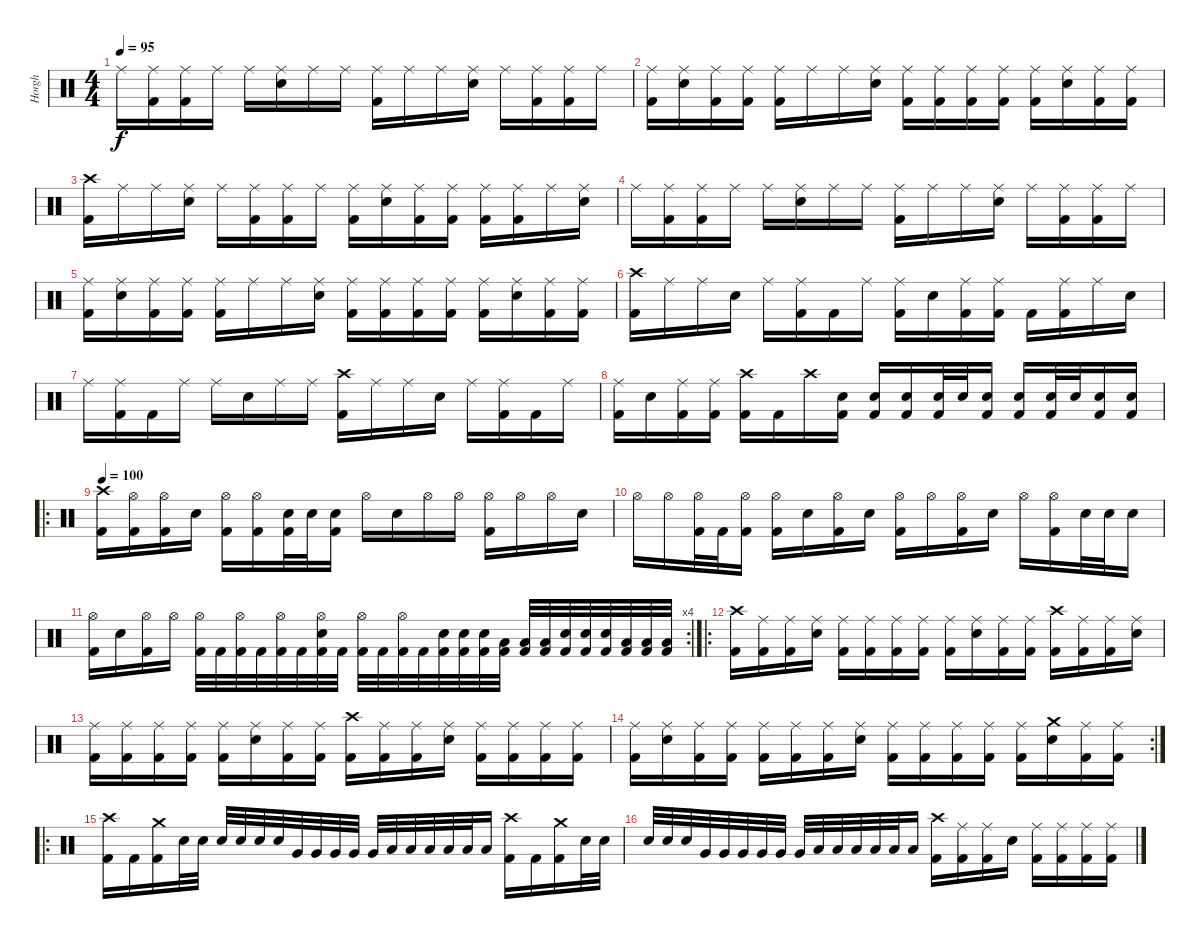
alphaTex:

\track ("Horgh" "Horgh") {instrument percussion}
\staff {score}
\articulation defaults
\ts (4 4)
\tempo 95
\clef neutral
\ks c "Ride (middle)".16{dy f}
("Ride (middle)" "Kick (hit) 2").16 ("Ride (middle)" "Kick (hit) 2").16 "Ride (middle)".16 "Ride (middle)".16 ("Ride (middle)" "Snare (hit) 2").16 "Ride (middle)".16 "Ride (middle)".16 ("Ride (middle)" "Kick (hit) 2").16 "Ride (middle)".16 "Ride (middle)".16 ("Ride (middle)" "Snare (hit) 2").16 "Ride (middle)".16 ("Ride (middle)" "Kick (hit) 2").16 ("Ride (middle)" "Kick (hit) 2").16 "Ride (middle)".16 |
("Ride (middle)" "Kick (hit) 2").16 ("Ride (middle)" "Snare (hit) 2").16 ("Ride (middle)" "Kick (hit) 2").16 ("Ride (middle)" "Kick (hit) 2").16 ("Ride (middle)" "Kick (hit) 2").16 "Ride (middle)".16 "Ride (middle)".16 ("Ride (middle)" "Snare (hit) 2").16 ("Ride (middle)" "Kick (hit) 2").16 ("Ride (middle)" "Kick (hit) 2").16 ("Ride (middle)" "Kick (hit) 2").16 ("Ride (middle)" "Kick (hit) 2").16 ("Ride (middle)" "Kick (hit) 2").16 ("Ride (middle)" "Snare (hit) 2").16 ("Ride (middle)" "Kick (hit) 2").16 ("Ride (middle)" "Kick (hit) 2").16 |
("Crash high (hit)" "Kick (hit) 2").16 "Ride (middle)".16 "Ride (middle)".16 ("Ride (middle)" "Snare (hit) 2").16 "Ride (middle)".16 ("Ride (middle)" "Kick (hit) 2").16 ("Ride (middle)" "Kick (hit) 2").16 "Ride (middle)".16 ("Ride (middle)" "Kick (hit) 2").16 ("Ride (middle)" "Snare (hit) 2").16 ("Ride (middle)" "Kick (hit) 2").16 ("Ride (middle)" "Kick (hit) 2").16 ("Ride (middle)" "Kick (hit) 2").16 ("Ride (middle)" "Kick (hit) 2").16 "Ride (middle)".16 ("Ride (middle)" "Snare (hit) 2").16 |
"Ride (middle)".16 ("Ride (middle)" "Kick (hit) 2").16 ("Ride (middle)" "Kick (hit) 2").16 "Ride (middle)".16 "Ride (middle)".16 ("Ride (middle)" "Snare (hit) 2").16 "Ride (middle)".16 "Ride (middle)".16 ("Ride (middle)" "Kick (hit) 2").16 "Ride (middle)".16 "Ride (middle)".16 ("Ride (middle)" "Snare (hit) 2").16 "Ride (middle)".16 ("Ride (middle)" "Kick (hit) 2").16 ("Ride (middle)" "Kick (hit) 2").16 "Ride (middle)".16 |
("Ride (middle)" "Kick (hit) 2").16 ("Ride (middle)" "Snare (hit) 2").16 ("Ride (middle)" "Kick (hit) 2").16 ("Ride (middle)" "Kick (hit) 2").16 ("Ride (middle)" "Kick (hit) 2").16 "Ride (middle)".16 "Ride (middle)".16 ("Ride (middle)" "Snare (hit) 2").16 ("Ride (middle)" "Kick (hit) 2").16 ("Ride (middle)" "Kick (hit) 2").16 ("Ride (middle)" "Kick (hit) 2").16 ("Ride (middle)" "Kick (hit) 2").16 ("Ride (middle)" "Kick (hit) 2").16 ("Ride (middle)" "Snare (hit) 2").16 ("Ride (middle)" "Kick (hit) 2").16 ("Ride (middle)" "Kick (hit) 2").16 |
("Crash high (hit)" "Kick (hit) 2").16 "Ride (middle)".16 "Ride (middle)".16 "Snare (hit) 2".16 "Ride (middle)".16 ("Ride (middle)" "Kick (hit) 2").16 "Kick (hit) 2".16 "Ride (middle)".16 ("Ride (middle)" "Kick (hit) 2").16 "Snare (hit) 2".16 ("Ride (middle)" "Kick (hit) 2").16 ("Ride (middle)" "Kick (hit) 2").16 "Kick (hit) 2".16 ("Ride (middle)" "Kick (hit) 2").16 "Ride (middle)".16 "Snare (hit) 2".16 |
"Ride (middle)".16 ("Ride (middle)" "Kick (hit) 2").16 "Kick (hit) 2".16 "Ride (middle)".16 "Ride (middle)".16 "Snare (hit) 2".16 "Ride (middle)".16 "Ride (middle)".16 ("Crash high (hit)" "Kick (hit) 2").16 "Ride (middle)".16 "Ride (middle)".16 "Snare (hit) 2".16 "Ride (middle)".16 ("Ride (middle)" "Kick (hit) 2").16 "Kick (hit) 2".16 "Ride (middle)".16 |
("Ride (middle)" "Kick (hit) 2").16 "Snare (hit) 2".16 ("Ride (middle)" "Kick (hit) 2").16 ("Ride (middle)" "Kick (hit) 2").16 ("Crash high (hit)" "Kick (hit) 2").16 "Kick (hit) 2".16 "Crash high (hit)".16 ("Snare (hit) 2" "Kick (hit) 2").16 ("Snare (hit) 2" "Kick (hit) 2").16 ("Snare (hit) 2" "Kick (hit) 2").16 ("Snare (hit) 2" "Kick (hit) 2").32 "Snare (hit) 2".32 ("Snare (hit) 2" "Kick (hit) 2").16 ("Snare (hit) 2" "Kick (hit) 2").16 ("Snare (hit) 2" "Kick (hit) 2").32 "Snare (hit) 2".32 ("Snare (hit) 2" "Kick (hit) 2").16 ("Snare (hit) 2" "Kick (hit) 2").16 |
\ro
\tempo 100
("Crash high (hit)" "Kick (hit) 2").16 ("Hi-Hat (open)" "Kick (hit) 2").16 ("Hi-Hat (open)" "Kick (hit) 2").16 "Snare (hit) 2".16 ("Hi-Hat (open)" "Kick (hit) 2").16 ("Hi-Hat (open)" "Kick (hit) 2").16 ("Snare (hit) 2" "Kick (hit) 2").32 "Snare (hit) 2".32 ("Snare (hit) 2" "Kick (hit) 2").16 "Hi-Hat (open)".16 "Snare (hit) 2".16 "Hi-Hat (open)".16 "Hi-Hat (open)".16 ("Hi-Hat (open)" "Kick (hit) 2").16 "Hi-Hat (open)".16 "Hi-Hat (open)".16 "Snare (hit) 2".16 |
"Hi-Hat (open)".16 "Hi-Hat (open)".16 ("Hi-Hat (open)" "Kick (hit) 2").32 "Kick (hit) 2".32 ("Hi-Hat (open)" "Kick (hit) 2").16 ("Hi-Hat (open)" "Kick (hit) 2").16 "Snare (hit) 2".16 ("Hi-Hat (open)" "Kick (hit) 2").16 "Snare (hit) 2".16 ("Hi-Hat (open)" "Kick (hit) 2").16 "Hi-Hat (open)".16 ("Hi-Hat (open)" "Kick (hit) 2").16 "Snare (hit) 2".16 "Hi-Hat (open)".16 ("Hi-Hat (open)" "Kick (hit) 2").16 "Snare (hit) 2".32 "Snare (hit) 2".32 "Snare (hit) 2".16 |
\rc 4
("Hi-Hat (open)" "Kick (hit) 2").16 "Snare (hit) 2".16 ("Hi-Hat (open)" "Kick (hit) 2").16 "Hi-Hat (open)".16 ("Hi-Hat (open)" "Kick (hit) 2").32 "Kick (hit) 2".32 ("Hi-Hat (open)" "Kick (hit) 2").32 "Kick (hit) 2".32 ("Hi-Hat (open)" "Kick (hit) 2").32 "Kick (hit) 2".32 ("Hi-Hat (open)" "Snare (hit) 2" "Kick (hit) 2").32 "Kick (hit) 2".32 ("Hi-Hat (open)" "Kick (hit) 2").32 "Kick (hit) 2".32 ("Hi-Hat (open)" "Kick (hit) 2").32 "Kick (hit) 2".32 ("Snare (hit) 2" "Kick (hit) 2").32 ("Snare (hit) 2" "Kick (hit) 2").32 ("Snare (hit) 2" "Kick (hit) 2").32 ("Low Tom (hit)" "Kick (hit) 2").32 ("Low Tom (hit)" "Kick (hit) 2").32 ("Low Tom (hit)" "Kick (hit) 2").32 ("Snare (hit) 2" "Kick (hit) 2").32 ("Snare (hit) 2" "Kick (hit) 2").32 ("Snare (hit) 2" "Kick (hit) 2").32 ("Low Tom (hit)" "Kick (hit) 2").32 ("Low Tom (hit)" "Kick (hit) 2").32 ("Low Tom (hit)" "Kick (hit) 2").32 |
\ro
("Crash high (hit)" "Kick (hit) 2").16 ("Ride (middle)" "Kick (hit) 2").16 ("Ride (middle)" "Kick (hit) 2").16 ("Ride (middle)" "Snare (hit) 2").16 ("Ride (middle)" "Kick (hit) 2").16 ("Ride (middle)" "Kick (hit) 2").16 ("Ride (middle)" "Kick (hit) 2").16 ("Ride (middle)" "Kick (hit) 2").16 ("Ride (middle)" "Kick (hit) 2").16 ("Ride (middle)" "Snare (hit) 2").16 ("Ride (middle)" "Kick (hit) 2").16 ("Ride (middle)" "Kick (hit) 2").16 ("Crash high (hit)" "Kick (hit) 2").16 ("Ride (middle)" "Kick (hit) 2").16 ("Ride (middle)" "Kick (hit) 2").16 ("Ride (middle)" "Snare (hit) 2").16 |
("Ride (middle)" "Kick (hit) 2").16 ("Ride (middle)" "Kick (hit) 2").16 ("Ride (middle)" "Kick (hit) 2").16 ("Ride (middle)" "Kick (hit) 2").16 ("Ride (middle)" "Kick (hit) 2").16 ("Ride (middle)" "Snare (hit) 2").16 ("Ride (middle)" "Kick (hit) 2").16 ("Ride (middle)" "Kick (hit) 2").16 ("Crash high (hit)" "Kick (hit) 2").16 ("Ride (middle)" "Kick (hit) 2").16 ("Ride (middle)" "Kick (hit) 2").16 ("Ride (middle)" "Snare (hit) 2").16 ("Ride (middle)" "Kick (hit) 2").16 ("Ride (middle)" "Kick (hit) 2").16 ("Ride (middle)" "Kick (hit) 2").16 ("Ride (middle)" "Kick (hit) 2").16 |
\rc 2
("Ride (middle)" "Kick (hit) 2").16 ("Ride (middle)" "Snare (hit) 2").16 ("Ride (middle)" "Kick (hit) 2").16 ("Ride (middle)" "Kick (hit) 2").16 ("Ride (middle)" "Kick (hit) 2").16 ("Ride (middle)" "Kick (hit) 2").16 ("Ride (middle)" "Kick (hit) 2").16 ("Ride (middle)" "Snare (hit) 2").16 ("Ride (middle)" "Kick (hit) 2").16 ("Ride (middle)" "Kick (hit) 2").16 ("Ride (middle)" "Kick (hit) 2").16 ("Ride (middle)" "Kick (hit) 2").16 ("Ride (middle)" "Kick (hit) 2").16 ("Crash medium (hit)" "Snare (hit) 2").16 ("Ride (middle)" "Kick (hit) 2").16 ("Ride (middle)" "Kick (hit) 2").16 |
\ro
("Crash high (hit)" "Kick (hit) 2").16 "Kick (hit) 2".16 ("Crash medium (hit)" "Kick (hit) 2").16 "Snare (hit) 2".32 "Snare (hit) 2".32 "Snare (hit) 2".32 "Snare (hit) 2".32 "Snare (hit) 2".32 "Snare (hit) 2".32 "Very Low Tom (hit)".32 "Very Low Tom (hit)".32 "Very Low Tom (hit)".32 "Very Low Tom (hit)".32 "Very Low Tom (hit)".32 "Low Tom (hit)".32 "Low Tom (hit)".32 "Low Tom (hit)".32 "Low Tom (hit)".32 "Low Tom (hit)".32 "Low Tom (hit)".16 ("Crash high (hit)" "Kick (hit) 2").16 "Kick (hit) 2".16 ("Crash medium (hit)" "Kick (hit) 2").16 "Snare (hit) 2".32 "Snare (hit) 2".32 |
"Snare (hit) 2".32 "Snare (hit) 2".32 "Snare (hit) 2".32 "Very Low Tom (hit)".32 "Very Low Tom (hit)".32 "Very Low Tom (hit)".32 "Very Low Tom (hit)".32 "Very Low Tom (hit)".32 "Very Low Tom (hit)".32 "Low Tom (hit)".32 "Low Tom (hit)".32 "Low Tom (hit)".32 "Low Tom (hit)".32 "Low Tom (hit)".32 "Low Tom (hit)".16 ("Crash high (hit)" "Kick (hit) 2").16 ("Ride (middle)" "Kick (hit) 2").16 ("Ride (middle)" "Kick (hit) 2").16 "Snare (hit) 2".16 ("Ride (middle)" "Kick (hit) 2").16 ("Ride (middle)" "Kick (hit) 2").16 ("Ride (middle)" "Kick (hit) 2").16 ("Ride (middle)" "Kick (hit) 2").16
